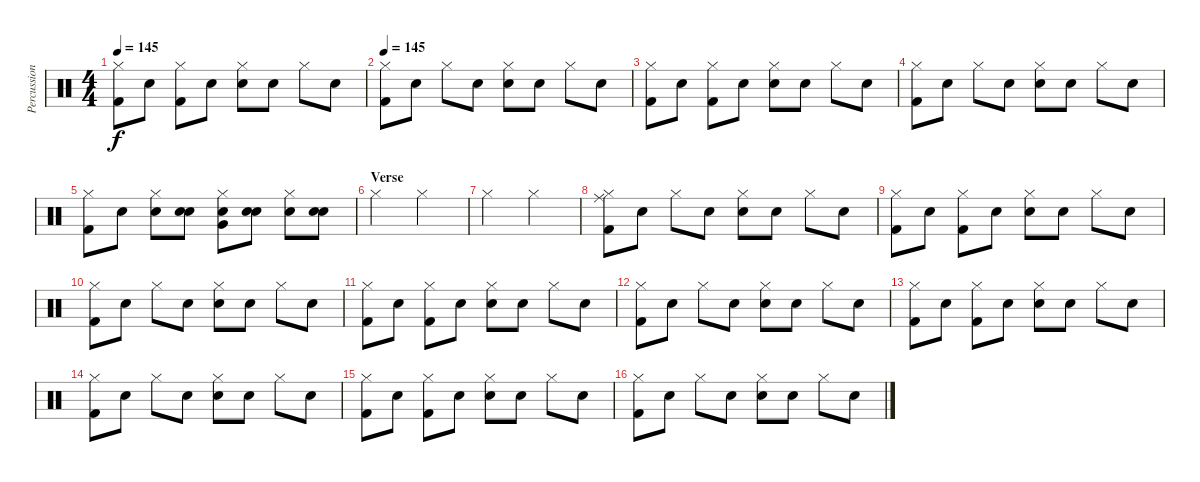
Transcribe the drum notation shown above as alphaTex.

\track ("Percussion" "Percussion") {instrument percussion}
\staff {score}
\articulation defaults
\ts (4 4)
\tempo 145
\clef neutral
\ks c
("Hi-Hat (closed)" "Kick (hit) 2").8{dy f} "Snare (hit)"{x}.8 ("Hi-Hat (closed)" "Kick (hit) 2").8 "Snare (hit)"{x}.8 ("Hi-Hat (closed)" "Electric Snare (hit)").8 "Snare (hit)"{x}.8 "Hi-Hat (closed)".8 "Snare (hit)"{x}.8 |
\tempo 145
("Hi-Hat (closed)" "Kick (hit) 2").8 "Snare (hit)"{x}.8 "Hi-Hat (closed)".8 "Snare (hit)"{x}.8 ("Hi-Hat (closed)" "Electric Snare (hit)").8 "Snare (hit)"{x}.8 "Hi-Hat (closed)".8 "Snare (hit)"{x}.8 |
("Hi-Hat (closed)" "Kick (hit) 2").8 "Snare (hit)"{x}.8 ("Hi-Hat (closed)" "Kick (hit) 2").8 "Snare (hit)"{x}.8 ("Hi-Hat (closed)" "Electric Snare (hit)").8 "Snare (hit)"{x}.8 "Hi-Hat (closed)".8 "Snare (hit)"{x}.8 |
("Hi-Hat (closed)" "Kick (hit) 2").8 "Snare (hit)"{x}.8 "Hi-Hat (closed)".8 "Snare (hit)"{x}.8 ("Hi-Hat (closed)" "Electric Snare (hit)").8 "Snare (hit)"{x}.8 "Hi-Hat (closed)".8 "Snare (hit)"{x}.8 |
("Hi-Hat (closed)" "Kick (hit) 2").8 "Snare (hit)"{x}.8 ("Hi-Hat (closed)" "Electric Snare (hit)"{x}).8 ("Snare (hit)"{x} "Electric Snare (hit)").8 ("Hi-Hat (closed)" "Very Low Tom (hit)" "Electric Snare (hit)").8 ("Snare (hit)"{x} "Electric Snare (hit)"{x}).8 ("Hi-Hat (closed)" "Electric Snare (hit)").8 ("Snare (hit)"{x} "Electric Snare (hit)").8 |
\section ("" "Verse")
"Hi-Hat (closed)".2 "Hi-Hat (closed)".2 |
"Hi-Hat (closed)".2 "Hi-Hat (closed)".2 |
("Hi-Hat (closed)" "Ride (middle)" "Kick (hit) 2").8 "Snare (hit)"{x}.8 "Hi-Hat (closed)".8 "Snare (hit)"{x}.8 ("Hi-Hat (closed)" "Electric Snare (hit)").8 "Snare (hit)"{x}.8 "Hi-Hat (closed)".8 "Snare (hit)"{x}.8 |
("Hi-Hat (closed)" "Kick (hit) 2").8 "Snare (hit)"{x}.8 ("Hi-Hat (closed)" "Kick (hit) 2").8 "Snare (hit)"{x}.8 ("Hi-Hat (closed)" "Electric Snare (hit)").8 "Snare (hit)"{x}.8 "Hi-Hat (closed)".8 "Snare (hit)"{x}.8 |
("Hi-Hat (closed)" "Kick (hit) 2").8 "Snare (hit)"{x}.8 "Hi-Hat (closed)".8 "Snare (hit)"{x}.8 ("Hi-Hat (closed)" "Electric Snare (hit)").8 "Snare (hit)"{x}.8 "Hi-Hat (closed)".8 "Snare (hit)"{x}.8 |
("Hi-Hat (closed)" "Kick (hit) 2").8 "Snare (hit)"{x}.8 ("Hi-Hat (closed)" "Kick (hit) 2").8 "Snare (hit)"{x}.8 ("Hi-Hat (closed)" "Electric Snare (hit)").8 "Snare (hit)"{x}.8 "Hi-Hat (closed)".8 "Snare (hit)"{x}.8 |
("Hi-Hat (closed)" "Kick (hit) 2").8 "Snare (hit)"{x}.8 "Hi-Hat (closed)".8 "Snare (hit)"{x}.8 ("Hi-Hat (closed)" "Electric Snare (hit)").8 "Snare (hit)"{x}.8 "Hi-Hat (closed)".8 "Snare (hit)"{x}.8 |
("Hi-Hat (closed)" "Kick (hit) 2").8 "Snare (hit)"{x}.8 ("Hi-Hat (closed)" "Kick (hit) 2").8 "Snare (hit)"{x}.8 ("Hi-Hat (closed)" "Electric Snare (hit)").8 "Snare (hit)"{x}.8 "Hi-Hat (closed)".8 "Snare (hit)"{x}.8 |
("Hi-Hat (closed)" "Kick (hit) 2").8 "Snare (hit)"{x}.8 "Hi-Hat (closed)".8 "Snare (hit)"{x}.8 ("Hi-Hat (closed)" "Electric Snare (hit)").8 "Snare (hit)"{x}.8 "Hi-Hat (closed)".8 "Snare (hit)"{x}.8 |
("Hi-Hat (closed)" "Kick (hit) 2").8 "Snare (hit)"{x}.8 ("Hi-Hat (closed)" "Kick (hit) 2").8 "Snare (hit)"{x}.8 ("Hi-Hat (closed)" "Electric Snare (hit)").8 "Snare (hit)"{x}.8 "Hi-Hat (closed)".8 "Snare (hit)"{x}.8 |
("Hi-Hat (closed)" "Kick (hit) 2").8 "Snare (hit)"{x}.8 "Hi-Hat (closed)".8 "Snare (hit)"{x}.8 ("Hi-Hat (closed)" "Electric Snare (hit)").8 "Snare (hit)"{x}.8 "Hi-Hat (closed)".8 "Snare (hit)"{x}.8
